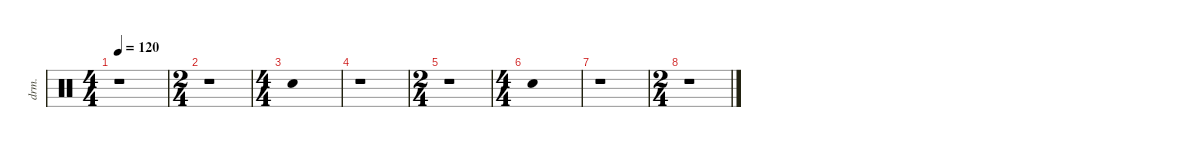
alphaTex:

\defaultSystemsLayout 4
\hideDynamics
\bracketExtendMode nobrackets
\track ("Kb." "drm.") {instrument percussion}
\staff {score}
\articulation defaults
\ts (4 4)
\tempo 120
\clef neutral
\ks c
r.1{dy f} |
\ts (2 4)
r.1 |
\ts (4 4)
"Metronome (bell)".1 |
r.1 |
\ts (2 4)
r.1 |
\ts (4 4)
"Metronome (bell)".1 |
r.1 |
\ts (2 4)
r.1
